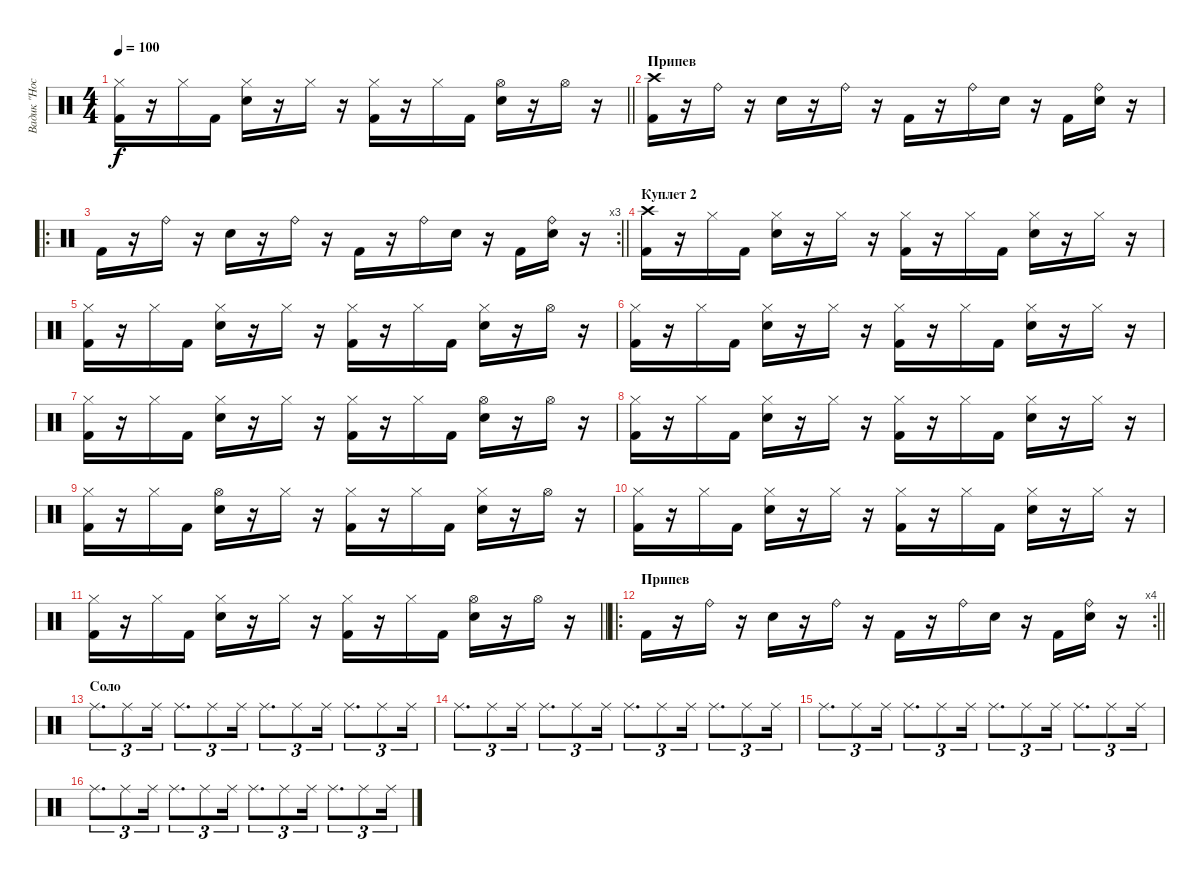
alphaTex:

\track ("Вадик \"Нос\"" "Вадик \"Нос") {instrument percussion}
\staff {score}
\articulation defaults
\ts (4 4)
\tempo 100
\clef neutral
\barLineRight lightlight
\ks c
("Hi-Hat (closed)" "Kick (hit) 2").16{dy f} r.16 "Hi-Hat (closed)".16 "Kick (hit) 2".16 ("Hi-Hat (closed)" "Snare (hit) 2").16 r.16 "Hi-Hat (closed)".16 r.16 ("Hi-Hat (closed)" "Kick (hit) 2").16 r.16 "Hi-Hat (closed)".16 "Kick (hit) 2".16 ("Hi-Hat (open)" "Snare (hit) 2").16 r.16 "Hi-Hat (open)".16 r.16 |
\section ("" "Припев")
("Crash high (hit)" "Kick (hit) 2").16 r.16 "Ride (bell)".16 r.16 "Snare (hit) 2".16 r.16 "Ride (bell)".16 r.16 "Kick (hit) 2".16 r.16 "Ride (bell)".16 "Snare (hit) 2".16 r.16 "Kick (hit) 2".16 ("Ride (bell)" "Snare (hit) 2").16 r.16 |
\ro
\rc 3
\barLineRight lightlight "Kick (hit) 2".16
r.16 "Ride (bell)".16 r.16 "Snare (hit) 2".16 r.16 "Ride (bell)".16 r.16 "Kick (hit) 2".16 r.16 "Ride (bell)".16 "Snare (hit) 2".16 r.16 "Kick (hit) 2".16 ("Ride (bell)" "Snare (hit) 2").16 r.16 |
\section ("" "Куплет 2")
("Crash high (hit)" "Kick (hit) 2").16 r.16 "Hi-Hat (closed)".16 "Kick (hit) 2".16 ("Hi-Hat (closed)" "Snare (hit) 2").16 r.16 "Hi-Hat (closed)".16 r.16 ("Hi-Hat (closed)" "Kick (hit) 2").16 r.16 "Hi-Hat (closed)".16 "Kick (hit) 2".16 ("Hi-Hat (closed)" "Snare (hit) 2").16 r.16 "Hi-Hat (closed)".16 r.16 |
("Hi-Hat (closed)" "Kick (hit) 2").16 r.16 "Hi-Hat (closed)".16 "Kick (hit) 2".16 ("Hi-Hat (closed)" "Snare (hit) 2").16 r.16 "Hi-Hat (closed)".16 r.16 ("Hi-Hat (closed)" "Kick (hit) 2").16 r.16 "Hi-Hat (closed)".16 "Kick (hit) 2".16 ("Hi-Hat (closed)" "Snare (hit) 2").16 r.16 "Hi-Hat (open)".16 r.16 |
("Hi-Hat (closed)" "Kick (hit) 2").16 r.16 "Hi-Hat (closed)".16 "Kick (hit) 2".16 ("Hi-Hat (closed)" "Snare (hit) 2").16 r.16 "Hi-Hat (closed)".16 r.16 ("Hi-Hat (closed)" "Kick (hit) 2").16 r.16 "Hi-Hat (closed)".16 "Kick (hit) 2".16 ("Hi-Hat (closed)" "Snare (hit) 2").16 r.16 "Hi-Hat (closed)".16 r.16 |
("Hi-Hat (closed)" "Kick (hit) 2").16 r.16 "Hi-Hat (closed)".16 "Kick (hit) 2".16 ("Hi-Hat (closed)" "Snare (hit) 2").16 r.16 "Hi-Hat (closed)".16 r.16 ("Hi-Hat (closed)" "Kick (hit) 2").16 r.16 "Hi-Hat (closed)".16 "Kick (hit) 2".16 ("Hi-Hat (open)" "Snare (hit) 2").16 r.16 "Hi-Hat (open)".16 r.16 |
("Hi-Hat (closed)" "Kick (hit) 2").16 r.16 "Hi-Hat (closed)".16 "Kick (hit) 2".16 ("Hi-Hat (closed)" "Snare (hit) 2").16 r.16 "Hi-Hat (closed)".16 r.16 ("Hi-Hat (closed)" "Kick (hit) 2").16 r.16 "Hi-Hat (closed)".16 "Kick (hit) 2".16 ("Hi-Hat (closed)" "Snare (hit) 2").16 r.16 "Hi-Hat (closed)".16 r.16 |
("Hi-Hat (closed)" "Kick (hit) 2").16 r.16 "Hi-Hat (closed)".16 "Kick (hit) 2".16 ("Hi-Hat (open)" "Snare (hit) 2").16 r.16 "Hi-Hat (closed)".16 r.16 ("Hi-Hat (closed)" "Kick (hit) 2").16 r.16 "Hi-Hat (closed)".16 "Kick (hit) 2".16 ("Hi-Hat (closed)" "Snare (hit) 2").16 r.16 "Hi-Hat (open)".16 r.16 |
("Hi-Hat (closed)" "Kick (hit) 2").16 r.16 "Hi-Hat (closed)".16 "Kick (hit) 2".16 ("Hi-Hat (closed)" "Snare (hit) 2").16 r.16 "Hi-Hat (closed)".16 r.16 ("Hi-Hat (closed)" "Kick (hit) 2").16 r.16 "Hi-Hat (closed)".16 "Kick (hit) 2".16 ("Hi-Hat (closed)" "Snare (hit) 2").16 r.16 "Hi-Hat (closed)".16 r.16 |
\barLineRight lightlight
("Hi-Hat (closed)" "Kick (hit) 2").16 r.16 "Hi-Hat (closed)".16 "Kick (hit) 2".16 ("Hi-Hat (closed)" "Snare (hit) 2").16 r.16 "Hi-Hat (closed)".16 r.16 ("Hi-Hat (closed)" "Kick (hit) 2").16 r.16 "Hi-Hat (closed)".16 "Kick (hit) 2".16 ("Hi-Hat (open)" "Snare (hit) 2").16 r.16 "Hi-Hat (open)".16 r.16 |
\ro
\rc 4
\section ("" "Припев")
\barLineRight lightlight "Kick (hit) 2".16
r.16 "Ride (bell)".16 r.16 "Snare (hit) 2".16 r.16 "Ride (bell)".16 r.16 "Kick (hit) 2".16 r.16 "Ride (bell)".16 "Snare (hit) 2".16 r.16 "Kick (hit) 2".16 ("Ride (bell)" "Snare (hit) 2").16 r.16 |
\section ("" "Соло")
"Ride (middle)".8{d tu (3 2)} "Ride (middle)".8{tu (3 2)} "Ride (middle)".16{tu (3 2)} "Ride (middle)".8{d tu (3 2)} "Ride (middle)".8{tu (3 2)} "Ride (middle)".16{tu (3 2)} "Ride (middle)".8{d tu (3 2)} "Ride (middle)".8{tu (3 2)} "Ride (middle)".16{tu (3 2)} "Ride (middle)".8{d tu (3 2)} "Ride (middle)".8{tu (3 2)} "Ride (middle)".16{tu (3 2)} |
"Ride (middle)".8{d tu (3 2)} "Ride (middle)".8{tu (3 2)} "Ride (middle)".16{tu (3 2)} "Ride (middle)".8{d tu (3 2)} "Ride (middle)".8{tu (3 2)} "Ride (middle)".16{tu (3 2)} "Ride (middle)".8{d tu (3 2)} "Ride (middle)".8{tu (3 2)} "Ride (middle)".16{tu (3 2)} "Ride (middle)".8{d tu (3 2)} "Ride (middle)".8{tu (3 2)} "Ride (middle)".16{tu (3 2)} |
"Ride (middle)".8{d tu (3 2)} "Ride (middle)".8{tu (3 2)} "Ride (middle)".16{tu (3 2)} "Ride (middle)".8{d tu (3 2)} "Ride (middle)".8{tu (3 2)} "Ride (middle)".16{tu (3 2)} "Ride (middle)".8{d tu (3 2)} "Ride (middle)".8{tu (3 2)} "Ride (middle)".16{tu (3 2)} "Ride (middle)".8{d tu (3 2)} "Ride (middle)".8{tu (3 2)} "Ride (middle)".16{tu (3 2)} |
"Ride (middle)".8{d tu (3 2)} "Ride (middle)".8{tu (3 2)} "Ride (middle)".16{tu (3 2)} "Ride (middle)".8{d tu (3 2)} "Ride (middle)".8{tu (3 2)} "Ride (middle)".16{tu (3 2)} "Ride (middle)".8{d tu (3 2)} "Ride (middle)".8{tu (3 2)} "Ride (middle)".16{tu (3 2)} "Ride (middle)".8{d tu (3 2)} "Ride (middle)".8{tu (3 2)} "Ride (middle)".16{tu (3 2)}
